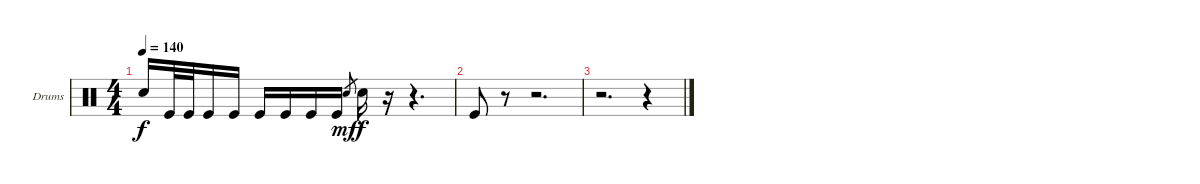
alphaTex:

\bracketExtendMode groupsimilarinstruments
\firstSystemTrackNameOrientation horizontal
\otherSystemsTrackNameOrientation horizontal
\track ("Drumkit" "Drums") {instrument percussion}
\staff {score}
\articulation defaults
\ts (4 4)
\tempo 140
\clef neutral
\ks c "Snare (hit) 2".16{dy f} "Kick (hit)".32 "Kick (hit)".32 "Kick (hit)".16 "Kick (hit)".16 "Kick (hit)".16 "Kick (hit)".16 "Kick (hit)".16 "Kick (hit)".16 "Snare (hit) 2".8{gr dy mf} "Snare (hit) 2".16{dy f}
r.16 r.4{d} |
"Kick (hit)".8 r.8 r.2{d} |
r.2{d} r.4
